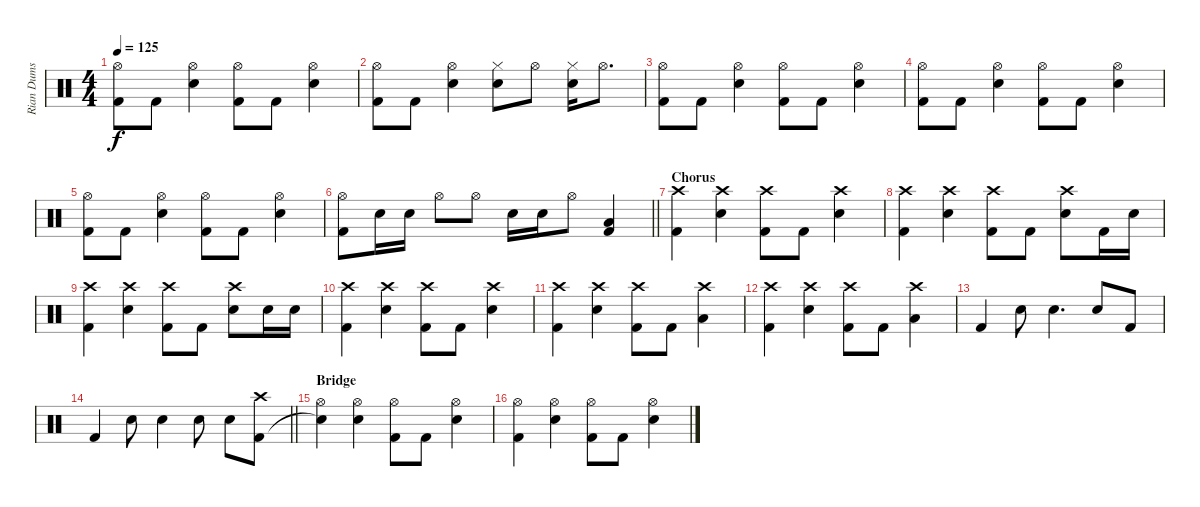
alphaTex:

\track ("Rian Dums" "Rian Dums") {instrument percussion}
\staff {score}
\articulation defaults
\ts (4 4)
\tempo 125
\clef neutral
\ks c
("Hi-Hat (open)" "Kick (hit) 2").8{dy f} "Kick (hit) 2".8 ("Hi-Hat (open)" "Snare (hit) 2").4 ("Hi-Hat (open)" "Kick (hit) 2").8 "Kick (hit) 2".8 ("Hi-Hat (open)" "Snare (hit) 2").4 |
("Hi-Hat (open)" "Kick (hit) 2").8 "Kick (hit) 2".8 ("Hi-Hat (open)" "Snare (hit) 2").4 ("Hi-Hat (closed)" "Snare (hit) 2").8 "Hi-Hat (open)".8 ("Hi-Hat (closed)" "Snare (hit) 2").16 "Hi-Hat (open)".8{d} |
("Hi-Hat (open)" "Kick (hit) 2").8 "Kick (hit) 2".8 ("Hi-Hat (open)" "Snare (hit) 2").4 ("Hi-Hat (open)" "Kick (hit) 2").8 "Kick (hit) 2".8 ("Hi-Hat (open)" "Snare (hit) 2").4 |
("Hi-Hat (open)" "Kick (hit) 2").8 "Kick (hit) 2".8 ("Hi-Hat (open)" "Snare (hit) 2").4 ("Hi-Hat (open)" "Kick (hit) 2").8 "Kick (hit) 2".8 ("Hi-Hat (open)" "Snare (hit) 2").4 |
("Hi-Hat (open)" "Kick (hit) 2").8 "Kick (hit) 2".8 ("Hi-Hat (open)" "Snare (hit) 2").4 ("Hi-Hat (open)" "Kick (hit) 2").8 "Kick (hit) 2".8 ("Hi-Hat (open)" "Snare (hit) 2").4 |
\barLineRight lightlight
("Hi-Hat (open)" "Kick (hit) 2").8 "Snare (hit) 2".16 "Snare (hit) 2".16 "Hi-Hat (open)".8 "Hi-Hat (open)".8 "Snare (hit) 2".16 "Snare (hit) 2".16 "Hi-Hat (open)".8 ("Low Floor Tom (hit)" "Kick (hit) 2").4 |
\section ("" "Chorus")
("Crash high (hit)" "Kick (hit) 2").4 ("Crash high (hit)" "Snare (hit) 2").4 ("Crash high (hit)" "Kick (hit) 2").8 "Kick (hit) 2".8 ("Crash high (hit)" "Snare (hit) 2").4 |
("Crash high (hit)" "Kick (hit) 2").4 ("Crash high (hit)" "Snare (hit) 2").4 ("Crash high (hit)" "Kick (hit) 2").8 "Kick (hit) 2".8 ("Crash high (hit)" "Snare (hit) 2").8 "Kick (hit) 2".16 "Snare (hit) 2".16 |
("Crash high (hit)" "Kick (hit) 2").4 ("Crash high (hit)" "Snare (hit) 2").4 ("Crash high (hit)" "Kick (hit) 2").8 "Kick (hit) 2".8 ("Crash high (hit)" "Snare (hit) 2").8 "Snare (hit) 2".16 "Snare (hit) 2".16 |
("Crash high (hit)" "Kick (hit) 2").4 ("Crash high (hit)" "Snare (hit) 2").4 ("Crash high (hit)" "Kick (hit) 2").8 "Kick (hit) 2".8 ("Crash high (hit)" "Snare (hit) 2").4 |
("Crash high (hit)" "Kick (hit) 2").4 ("Crash high (hit)" "Snare (hit) 2").4 ("Crash high (hit)" "Kick (hit) 2").8 "Kick (hit) 2".8 ("Crash high (hit)" "Low Floor Tom (hit)").4 |
("Crash high (hit)" "Kick (hit) 2").4 ("Crash high (hit)" "Snare (hit) 2").4 ("Crash high (hit)" "Kick (hit) 2").8 "Kick (hit) 2".8 ("Crash high (hit)" "Low Floor Tom (hit)").4 |
"Kick (hit) 2".4 "Snare (hit) 2".8 "Snare (hit) 2".4{d} "Snare (hit) 2".8 "Kick (hit) 2".8 |
\barLineRight lightlight "Kick (hit) 2".4 "Snare (hit) 2".8 "Snare (hit) 2".4 "Snare (hit) 2".8 "Snare (hit) 2".8
("Crash high (hit)" "Kick (hit) 2").8 |
\section ("" "Bridge")
("Hi-Hat (open)" "Snare (hit)"{t}).4 ("Hi-Hat (open)" "Snare (hit) 2").4 ("Hi-Hat (open)" "Kick (hit) 2").8 "Kick (hit) 2".8 ("Hi-Hat (open)" "Snare (hit) 2").4 |
("Hi-Hat (open)" "Kick (hit) 2").4 ("Hi-Hat (open)" "Snare (hit) 2").4 ("Hi-Hat (open)" "Kick (hit) 2").8 "Kick (hit) 2".8 ("Hi-Hat (open)" "Snare (hit) 2").4
